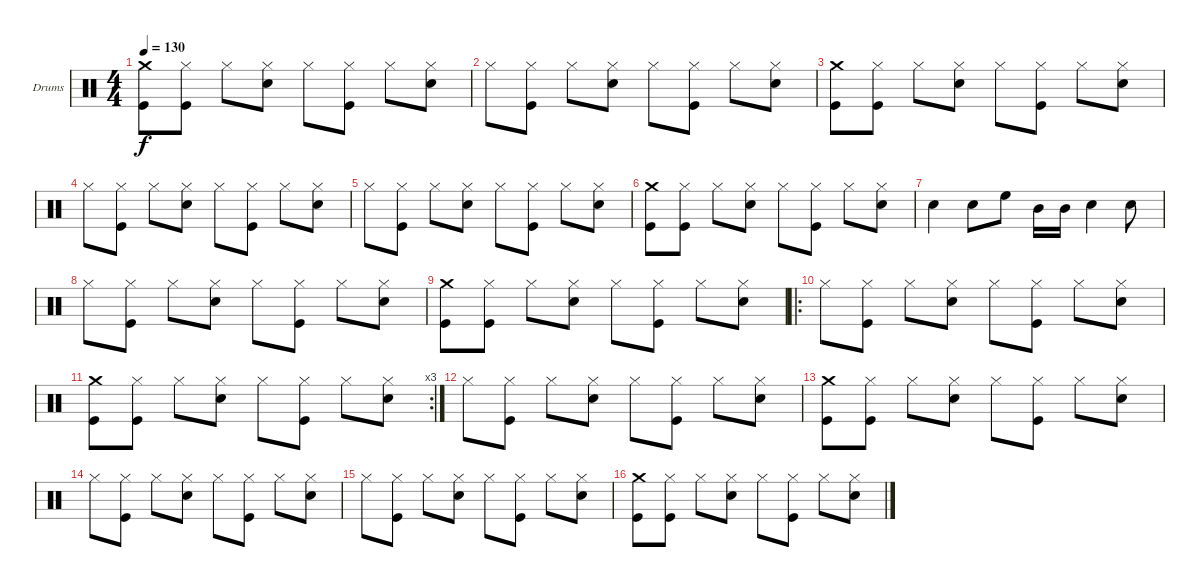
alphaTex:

\bracketExtendMode groupsimilarinstruments
\firstSystemTrackNameOrientation horizontal
\otherSystemsTrackNameOrientation horizontal
\track ("Drumkit" "Drums") {instrument percussion}
\staff {score}
\articulation defaults
\ts (4 4)
\tempo 130
\clef neutral
\ks c
("Crash medium (hit)" "Kick (hit)").8{dy f} ("Hi-Hat (closed)" "Kick (hit)").8 "Hi-Hat (closed)".8 ("Hi-Hat (closed)" "Snare (hit) 2").8 "Hi-Hat (closed)".8 ("Hi-Hat (closed)" "Kick (hit)").8 "Hi-Hat (closed)".8 ("Hi-Hat (closed)" "Snare (hit) 2").8 |
"Hi-Hat (closed)".8 ("Hi-Hat (closed)" "Kick (hit)").8 "Hi-Hat (closed)".8 ("Hi-Hat (closed)" "Snare (hit) 2").8 "Hi-Hat (closed)".8 ("Hi-Hat (closed)" "Kick (hit)").8 "Hi-Hat (closed)".8 ("Hi-Hat (closed)" "Snare (hit) 2").8 |
("Crash medium (hit)" "Kick (hit)").8 ("Hi-Hat (closed)" "Kick (hit)").8 "Hi-Hat (closed)".8 ("Hi-Hat (closed)" "Snare (hit) 2").8 "Hi-Hat (closed)".8 ("Hi-Hat (closed)" "Kick (hit)").8 "Hi-Hat (closed)".8 ("Hi-Hat (closed)" "Snare (hit) 2").8 |
"Hi-Hat (closed)".8 ("Hi-Hat (closed)" "Kick (hit)").8 "Hi-Hat (closed)".8 ("Hi-Hat (closed)" "Snare (hit) 2").8 "Hi-Hat (closed)".8 ("Hi-Hat (closed)" "Kick (hit)").8 "Hi-Hat (closed)".8 ("Hi-Hat (closed)" "Snare (hit) 2").8 |
"Hi-Hat (closed)".8 ("Hi-Hat (closed)" "Kick (hit)").8 "Hi-Hat (closed)".8 ("Hi-Hat (closed)" "Snare (hit) 2").8 "Hi-Hat (closed)".8 ("Hi-Hat (closed)" "Kick (hit)").8 "Hi-Hat (closed)".8 ("Hi-Hat (closed)" "Snare (hit) 2").8 |
("Crash medium (hit)" "Kick (hit)").8 ("Hi-Hat (closed)" "Kick (hit)").8 "Hi-Hat (closed)".8 ("Hi-Hat (closed)" "Snare (hit) 2").8 "Hi-Hat (closed)".8 ("Hi-Hat (closed)" "Kick (hit)").8 "Hi-Hat (closed)".8 ("Hi-Hat (closed)" "Snare (hit) 2").8 |
"Snare (hit) 2".4 "Snare (hit) 2".8 "High Floor Tom (hit)".8 "Mid Tom (hit)".16 "Mid Tom (hit)".16 "Snare (hit) 2".4 "Snare (hit) 2".8 |
"Hi-Hat (closed)".8 ("Hi-Hat (closed)" "Kick (hit)").8 "Hi-Hat (closed)".8 ("Hi-Hat (closed)" "Snare (hit) 2").8 "Hi-Hat (closed)".8 ("Hi-Hat (closed)" "Kick (hit)").8 "Hi-Hat (closed)".8 ("Hi-Hat (closed)" "Snare (hit) 2").8 |
("Crash medium (hit)" "Kick (hit)").8 ("Hi-Hat (closed)" "Kick (hit)").8 "Hi-Hat (closed)".8 ("Hi-Hat (closed)" "Snare (hit) 2").8 "Hi-Hat (closed)".8 ("Hi-Hat (closed)" "Kick (hit)").8 "Hi-Hat (closed)".8 ("Hi-Hat (closed)" "Snare (hit) 2").8 |
\ro "Hi-Hat (closed)".8
("Hi-Hat (closed)" "Kick (hit)").8 "Hi-Hat (closed)".8 ("Hi-Hat (closed)" "Snare (hit) 2").8 "Hi-Hat (closed)".8 ("Hi-Hat (closed)" "Kick (hit)").8 "Hi-Hat (closed)".8 ("Hi-Hat (closed)" "Snare (hit) 2").8 |
\rc 3
("Crash medium (hit)" "Kick (hit)").8 ("Hi-Hat (closed)" "Kick (hit)").8 "Hi-Hat (closed)".8 ("Hi-Hat (closed)" "Snare (hit) 2").8 "Hi-Hat (closed)".8 ("Hi-Hat (closed)" "Kick (hit)").8 "Hi-Hat (closed)".8 ("Hi-Hat (closed)" "Snare (hit) 2").8 |
"Hi-Hat (closed)".8 ("Hi-Hat (closed)" "Kick (hit)").8 "Hi-Hat (closed)".8 ("Hi-Hat (closed)" "Snare (hit) 2").8 "Hi-Hat (closed)".8 ("Hi-Hat (closed)" "Kick (hit)").8 "Hi-Hat (closed)".8 ("Hi-Hat (closed)" "Snare (hit) 2").8 |
("Crash medium (hit)" "Kick (hit)").8 ("Hi-Hat (closed)" "Kick (hit)").8 "Hi-Hat (closed)".8 ("Hi-Hat (closed)" "Snare (hit) 2").8 "Hi-Hat (closed)".8 ("Hi-Hat (closed)" "Kick (hit)").8 "Hi-Hat (closed)".8 ("Hi-Hat (closed)" "Snare (hit) 2").8 |
"Hi-Hat (closed)".8 ("Hi-Hat (closed)" "Kick (hit)").8 "Hi-Hat (closed)".8 ("Hi-Hat (closed)" "Snare (hit) 2").8 "Hi-Hat (closed)".8 ("Hi-Hat (closed)" "Kick (hit)").8 "Hi-Hat (closed)".8 ("Hi-Hat (closed)" "Snare (hit) 2").8 |
"Hi-Hat (closed)".8 ("Hi-Hat (closed)" "Kick (hit)").8 "Hi-Hat (closed)".8 ("Hi-Hat (closed)" "Snare (hit) 2").8 "Hi-Hat (closed)".8 ("Hi-Hat (closed)" "Kick (hit)").8 "Hi-Hat (closed)".8 ("Hi-Hat (closed)" "Snare (hit) 2").8 |
("Crash medium (hit)" "Kick (hit)").8 ("Hi-Hat (closed)" "Kick (hit)").8 "Hi-Hat (closed)".8 ("Hi-Hat (closed)" "Snare (hit) 2").8 "Hi-Hat (closed)".8 ("Hi-Hat (closed)" "Kick (hit)").8 "Hi-Hat (closed)".8 ("Hi-Hat (closed)" "Snare (hit) 2").8
